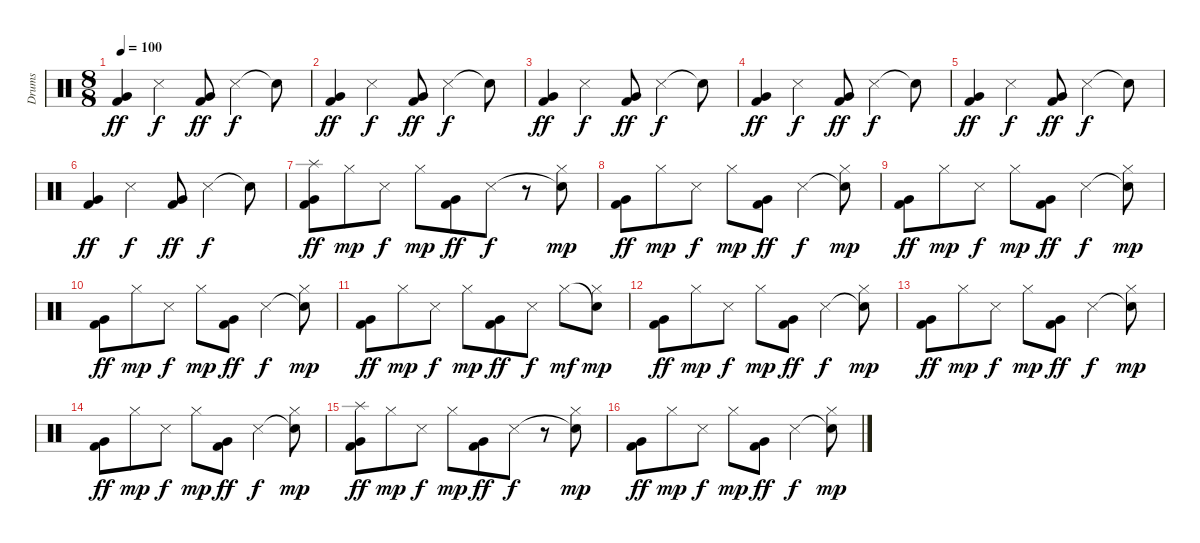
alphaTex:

\track ("Drums" "Drums") {instrument percussion}
\staff {score}
\articulation defaults
\ts (8 8)
\tempo 100
\clef neutral
\ks c
("Kick (hit) 2" "Very Low Tom (hit)").4{dy ff} "Snare (side stick) 3".4{dy f} ("Kick (hit) 2" "Very Low Tom (hit)").8{dy ff} "Snare (side stick) 3".4{dy f} "Snare (hit)"{t}.8 |
("Kick (hit) 2" "Very Low Tom (hit)").4{dy ff} "Snare (side stick) 3".4{dy f} ("Kick (hit) 2" "Very Low Tom (hit)").8{dy ff} "Snare (side stick) 3".4{dy f} "Snare (hit)"{t}.8 |
("Kick (hit) 2" "Very Low Tom (hit)").4{dy ff} "Snare (side stick) 3".4{dy f} ("Kick (hit) 2" "Very Low Tom (hit)").8{dy ff} "Snare (side stick) 3".4{dy f} "Snare (hit)"{t}.8 |
("Kick (hit) 2" "Very Low Tom (hit)").4{dy ff} "Snare (side stick) 3".4{dy f} ("Kick (hit) 2" "Very Low Tom (hit)").8{dy ff} "Snare (side stick) 3".4{dy f} "Snare (hit)"{t}.8 |
("Kick (hit) 2" "Very Low Tom (hit)").4{dy ff} "Snare (side stick) 3".4{dy f} ("Kick (hit) 2" "Very Low Tom (hit)").8{dy ff} "Snare (side stick) 3".4{dy f} "Snare (hit)"{t}.8 |
("Kick (hit) 2" "Very Low Tom (hit)").4{dy ff} "Snare (side stick) 3".4{dy f} ("Kick (hit) 2" "Very Low Tom (hit)").8{dy ff} "Snare (side stick) 3".4{dy f} "Snare (hit)"{t}.8 |
("Splash (hit)" "Kick (hit) 2" "Very Low Tom (hit)").8{dy ff} "Hi-Hat (closed)".8{dy mp} "Snare (side stick) 3".8{dy f} "Hi-Hat (closed)".8{dy mp} ("Kick (hit) 2" "Very Low Tom (hit)").8{dy ff} "Snare (side stick) 3".8{dy f} r.8 ("Snare (hit)"{t} "Hi-Hat (closed)").8{dy mp} |
("Kick (hit) 2" "Very Low Tom (hit)").8{dy ff} "Hi-Hat (closed)".8{dy mp} "Snare (side stick) 3".8{dy f} "Hi-Hat (closed)".8{dy mp} ("Kick (hit) 2" "Very Low Tom (hit)").8{dy ff} "Snare (side stick) 3".4{dy f} ("Snare (hit)"{t} "Hi-Hat (closed)").8{dy mp} |
("Kick (hit) 2" "Very Low Tom (hit)").8{dy ff} "Hi-Hat (closed)".8{dy mp} "Snare (side stick) 3".8{dy f} "Hi-Hat (closed)".8{dy mp} ("Kick (hit) 2" "Very Low Tom (hit)").8{dy ff} "Snare (side stick) 3".4{dy f} ("Snare (hit)"{t} "Hi-Hat (closed)").8{dy mp} |
("Kick (hit) 2" "Very Low Tom (hit)").8{dy ff} "Hi-Hat (closed)".8{dy mp} "Snare (side stick) 3".8{dy f} "Hi-Hat (closed)".8{dy mp} ("Kick (hit) 2" "Very Low Tom (hit)").8{dy ff} "Snare (side stick) 3".4{dy f} ("Snare (hit)"{t} "Hi-Hat (closed)").8{dy mp} |
("Kick (hit) 2" "Very Low Tom (hit)").8{dy ff} "Hi-Hat (closed)".8{dy mp} "Snare (side stick) 3".8{dy f} "Hi-Hat (closed)".8{dy mp} ("Kick (hit) 2" "Very Low Tom (hit)").8{dy ff} "Snare (side stick) 3".8{dy f} "Hi-Hat (closed)".8{dy mf} ("Snare (hit)"{t} "Hi-Hat (closed)").8{dy mp} |
("Kick (hit) 2" "Very Low Tom (hit)").8{dy ff} "Hi-Hat (closed)".8{dy mp} "Snare (side stick) 3".8{dy f} "Hi-Hat (closed)".8{dy mp} ("Kick (hit) 2" "Very Low Tom (hit)").8{dy ff} "Snare (side stick) 3".4{dy f} ("Snare (hit)"{t} "Hi-Hat (closed)").8{dy mp} |
("Kick (hit) 2" "Very Low Tom (hit)").8{dy ff} "Hi-Hat (closed)".8{dy mp} "Snare (side stick) 3".8{dy f} "Hi-Hat (closed)".8{dy mp} ("Kick (hit) 2" "Very Low Tom (hit)").8{dy ff} "Snare (side stick) 3".4{dy f} ("Snare (hit)"{t} "Hi-Hat (closed)").8{dy mp} |
("Kick (hit) 2" "Very Low Tom (hit)").8{dy ff} "Hi-Hat (closed)".8{dy mp} "Snare (side stick) 3".8{dy f} "Hi-Hat (closed)".8{dy mp} ("Kick (hit) 2" "Very Low Tom (hit)").8{dy ff} "Snare (side stick) 3".4{dy f} ("Snare (hit)"{t} "Hi-Hat (closed)").8{dy mp} |
("Splash (hit)" "Kick (hit) 2" "Very Low Tom (hit)").8{dy ff} "Hi-Hat (closed)".8{dy mp} "Snare (side stick) 3".8{dy f} "Hi-Hat (closed)".8{dy mp} ("Kick (hit) 2" "Very Low Tom (hit)").8{dy ff} "Snare (side stick) 3".8{dy f} r.8 ("Snare (hit)"{t} "Hi-Hat (closed)").8{dy mp} |
("Kick (hit) 2" "Very Low Tom (hit)").8{dy ff} "Hi-Hat (closed)".8{dy mp} "Snare (side stick) 3".8{dy f} "Hi-Hat (closed)".8{dy mp} ("Kick (hit) 2" "Very Low Tom (hit)").8{dy ff} "Snare (side stick) 3".4{dy f} ("Snare (hit)"{t} "Hi-Hat (closed)").8{dy mp}
